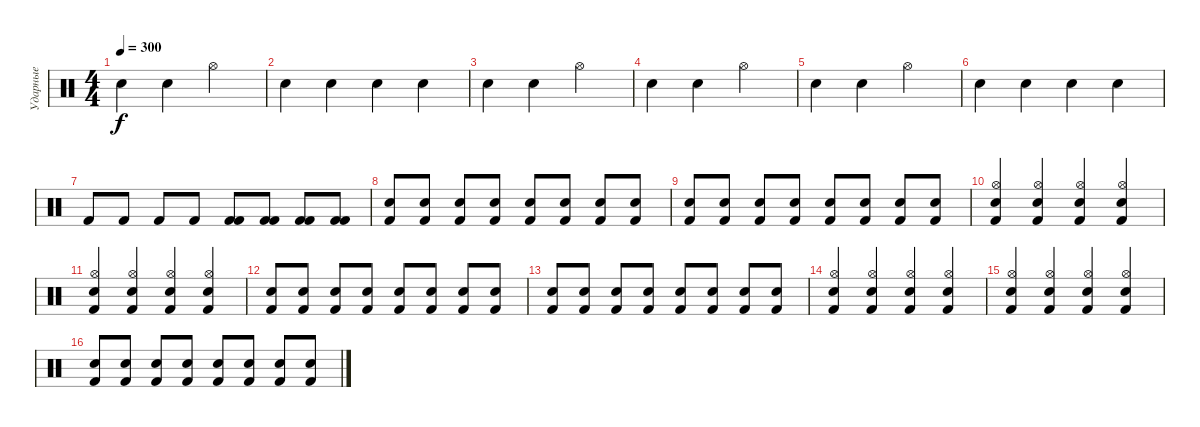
\track ("Ударные" "Ударные") {instrument percussion}
\staff {score}
\articulation defaults
\ts (4 4)
\tempo 300
\clef neutral
\ks c "Electric Snare (hit)".4{dy f} "Electric Snare (hit)".4 "Hi-Hat (open)".2
|
"Electric Snare (hit)".4 "Electric Snare (hit)".4 "Electric Snare (hit)".4 "Electric Snare (hit)".4 |
"Electric Snare (hit)".4 "Electric Snare (hit)".4 "Hi-Hat (open)".2 |
"Electric Snare (hit)".4 "Electric Snare (hit)".4 "Hi-Hat (open)".2 |
"Electric Snare (hit)".4 "Electric Snare (hit)".4 "Hi-Hat (open)".2 |
"Electric Snare (hit)".4 "Electric Snare (hit)".4 "Electric Snare (hit)".4 "Electric Snare (hit)".4 |
"Kick (hit) 2".8 "Kick (hit) 2".8 "Kick (hit) 2".8 "Kick (hit) 2".8 ("Kick (hit) 2" "Kick (hit) 2").8 ("Kick (hit) 2" "Kick (hit) 2").8 ("Kick (hit) 2" "Kick (hit) 2").8 ("Kick (hit) 2" "Kick (hit) 2").8 |
("Kick (hit) 2" "Electric Snare (hit)").8 ("Kick (hit) 2" "Electric Snare (hit)").8 ("Kick (hit) 2" "Electric Snare (hit)").8 ("Kick (hit) 2" "Electric Snare (hit)").8 ("Kick (hit) 2" "Electric Snare (hit)").8 ("Kick (hit) 2" "Electric Snare (hit)").8 ("Kick (hit) 2" "Electric Snare (hit)").8 ("Kick (hit) 2" "Electric Snare (hit)").8 |
("Kick (hit) 2" "Electric Snare (hit)").8 ("Kick (hit) 2" "Electric Snare (hit)").8 ("Kick (hit) 2" "Electric Snare (hit)").8 ("Kick (hit) 2" "Electric Snare (hit)").8 ("Kick (hit) 2" "Electric Snare (hit)").8 ("Kick (hit) 2" "Electric Snare (hit)").8 ("Kick (hit) 2" "Electric Snare (hit)").8 ("Kick (hit) 2" "Electric Snare (hit)").8 |
("Hi-Hat (open)" "Electric Snare (hit)" "Kick (hit) 2").4 ("Hi-Hat (open)" "Electric Snare (hit)" "Kick (hit) 2").4 ("Hi-Hat (open)" "Electric Snare (hit)" "Kick (hit) 2").4 ("Hi-Hat (open)" "Electric Snare (hit)" "Kick (hit) 2").4 |
("Hi-Hat (open)" "Electric Snare (hit)" "Kick (hit) 2").4 ("Hi-Hat (open)" "Electric Snare (hit)" "Kick (hit) 2").4 ("Hi-Hat (open)" "Electric Snare (hit)" "Kick (hit) 2").4 ("Hi-Hat (open)" "Electric Snare (hit)" "Kick (hit) 2").4 |
("Kick (hit) 2" "Electric Snare (hit)").8 ("Kick (hit) 2" "Electric Snare (hit)").8 ("Kick (hit) 2" "Electric Snare (hit)").8 ("Kick (hit) 2" "Electric Snare (hit)").8 ("Kick (hit) 2" "Electric Snare (hit)").8 ("Kick (hit) 2" "Electric Snare (hit)").8 ("Kick (hit) 2" "Electric Snare (hit)").8 ("Kick (hit) 2" "Electric Snare (hit)").8 |
("Kick (hit) 2" "Electric Snare (hit)").8 ("Kick (hit) 2" "Electric Snare (hit)").8 ("Kick (hit) 2" "Electric Snare (hit)").8 ("Kick (hit) 2" "Electric Snare (hit)").8 ("Kick (hit) 2" "Electric Snare (hit)").8 ("Kick (hit) 2" "Electric Snare (hit)").8 ("Kick (hit) 2" "Electric Snare (hit)").8 ("Kick (hit) 2" "Electric Snare (hit)").8 |
("Hi-Hat (open)" "Electric Snare (hit)" "Kick (hit) 2").4 ("Hi-Hat (open)" "Electric Snare (hit)" "Kick (hit) 2").4 ("Hi-Hat (open)" "Electric Snare (hit)" "Kick (hit) 2").4 ("Hi-Hat (open)" "Electric Snare (hit)" "Kick (hit) 2").4 |
("Hi-Hat (open)" "Electric Snare (hit)" "Kick (hit) 2").4 ("Hi-Hat (open)" "Electric Snare (hit)" "Kick (hit) 2").4 ("Hi-Hat (open)" "Electric Snare (hit)" "Kick (hit) 2").4 ("Hi-Hat (open)" "Electric Snare (hit)" "Kick (hit) 2").4 |
("Kick (hit) 2" "Electric Snare (hit)").8 ("Kick (hit) 2" "Electric Snare (hit)").8 ("Kick (hit) 2" "Electric Snare (hit)").8 ("Kick (hit) 2" "Electric Snare (hit)").8 ("Kick (hit) 2" "Electric Snare (hit)").8 ("Kick (hit) 2" "Electric Snare (hit)").8 ("Kick (hit) 2" "Electric Snare (hit)").8 ("Kick (hit) 2" "Electric Snare (hit)").8
